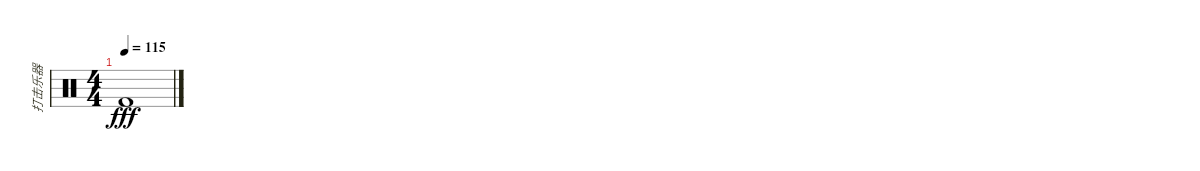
\track ("打击乐器" "打击乐器") {instrument percussion}
\staff {score}
\articulation defaults
\ts (4 4)
\tempo 115
\clef neutral
\ks c "Kick (hit) 2".1{dy fff}
